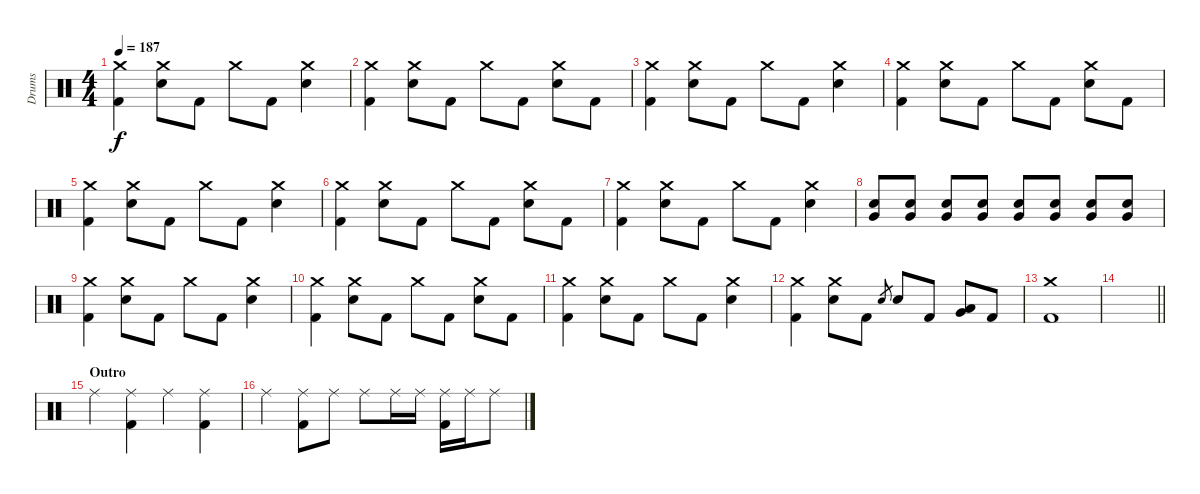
\track ("Drums" "Drums") {instrument percussion}
\staff {score}
\articulation defaults
\ts (4 4)
\tempo 187
\clef neutral
\ks c
("Crash medium (hit)" "Kick (hit) 2").4{dy f} ("Crash medium (hit)" "Electric Snare (hit)").8 "Kick (hit) 2".8 "Crash medium (hit)".8 "Kick (hit) 2".8 ("Crash medium (hit)" "Electric Snare (hit)").4 |
("Crash medium (hit)" "Kick (hit) 2").4 ("Crash medium (hit)" "Electric Snare (hit)").8 "Kick (hit) 2".8 "Crash medium (hit)".8 "Kick (hit) 2".8 ("Crash medium (hit)" "Electric Snare (hit)").8 "Kick (hit) 2".8 |
("Crash medium (hit)" "Kick (hit) 2").4 ("Crash medium (hit)" "Electric Snare (hit)").8 "Kick (hit) 2".8 "Crash medium (hit)".8 "Kick (hit) 2".8 ("Crash medium (hit)" "Electric Snare (hit)").4 |
("Crash medium (hit)" "Kick (hit) 2").4 ("Crash medium (hit)" "Electric Snare (hit)").8 "Kick (hit) 2".8 "Crash medium (hit)".8 "Kick (hit) 2".8 ("Crash medium (hit)" "Electric Snare (hit)").8 "Kick (hit) 2".8 |
("Crash medium (hit)" "Kick (hit) 2").4 ("Crash medium (hit)" "Electric Snare (hit)").8 "Kick (hit) 2".8 "Crash medium (hit)".8 "Kick (hit) 2".8 ("Crash medium (hit)" "Electric Snare (hit)").4 |
("Crash medium (hit)" "Kick (hit) 2").4 ("Crash medium (hit)" "Electric Snare (hit)").8 "Kick (hit) 2".8 "Crash medium (hit)".8 "Kick (hit) 2".8 ("Crash medium (hit)" "Electric Snare (hit)").8 "Kick (hit) 2".8 |
("Crash medium (hit)" "Kick (hit) 2").4 ("Crash medium (hit)" "Electric Snare (hit)").8 "Kick (hit) 2".8 "Crash medium (hit)".8 "Kick (hit) 2".8 ("Crash medium (hit)" "Electric Snare (hit)").4 |
("Electric Snare (hit)" "Very Low Tom (hit)").8 ("Electric Snare (hit)" "Very Low Tom (hit)").8 ("Electric Snare (hit)" "Very Low Tom (hit)").8 ("Electric Snare (hit)" "Very Low Tom (hit)").8 ("Electric Snare (hit)" "Very Low Tom (hit)").8 ("Electric Snare (hit)" "Very Low Tom (hit)").8 ("Electric Snare (hit)" "Very Low Tom (hit)").8 ("Electric Snare (hit)" "Very Low Tom (hit)").8 |
("Crash medium (hit)" "Kick (hit) 2").4 ("Crash medium (hit)" "Electric Snare (hit)").8 "Kick (hit) 2".8 "Crash medium (hit)".8 "Kick (hit) 2".8 ("Crash medium (hit)" "Electric Snare (hit)").4 |
("Crash medium (hit)" "Kick (hit) 2").4 ("Crash medium (hit)" "Electric Snare (hit)").8 "Kick (hit) 2".8 "Crash medium (hit)".8 "Kick (hit) 2".8 ("Crash medium (hit)" "Electric Snare (hit)").8 "Kick (hit) 2".8 |
("Crash medium (hit)" "Kick (hit) 2").4 ("Crash medium (hit)" "Electric Snare (hit)").8 "Kick (hit) 2".8 "Crash medium (hit)".8 "Kick (hit) 2".8 ("Crash medium (hit)" "Electric Snare (hit)").4 |
("Crash medium (hit)" "Kick (hit) 2").4 ("Crash medium (hit)" "Electric Snare (hit)").8 "Kick (hit) 2".8 "Electric Snare (hit)".8{gr} "Electric Snare (hit)".8 "Kick (hit) 2".8 ("Very Low Tom (hit)" "Low Tom (hit)").8 "Kick (hit) 2".8 |
("Crash medium (hit)" "Kick (hit) 2").1 |
\barLineRight lightlight
|
\section ("" "Outro")
"Ride (middle)".4 ("Ride (middle)" "Kick (hit) 2").4 "Ride (middle)".4 ("Ride (middle)" "Kick (hit) 2").4 |
"Ride (middle)".4 ("Ride (middle)" "Kick (hit) 2").8 "Ride (middle)".8 "Ride (middle)".8 "Ride (middle)".16 "Ride (middle)".16 ("Ride (middle)" "Kick (hit) 2").16 "Ride (middle)".16 "Ride (middle)".8
